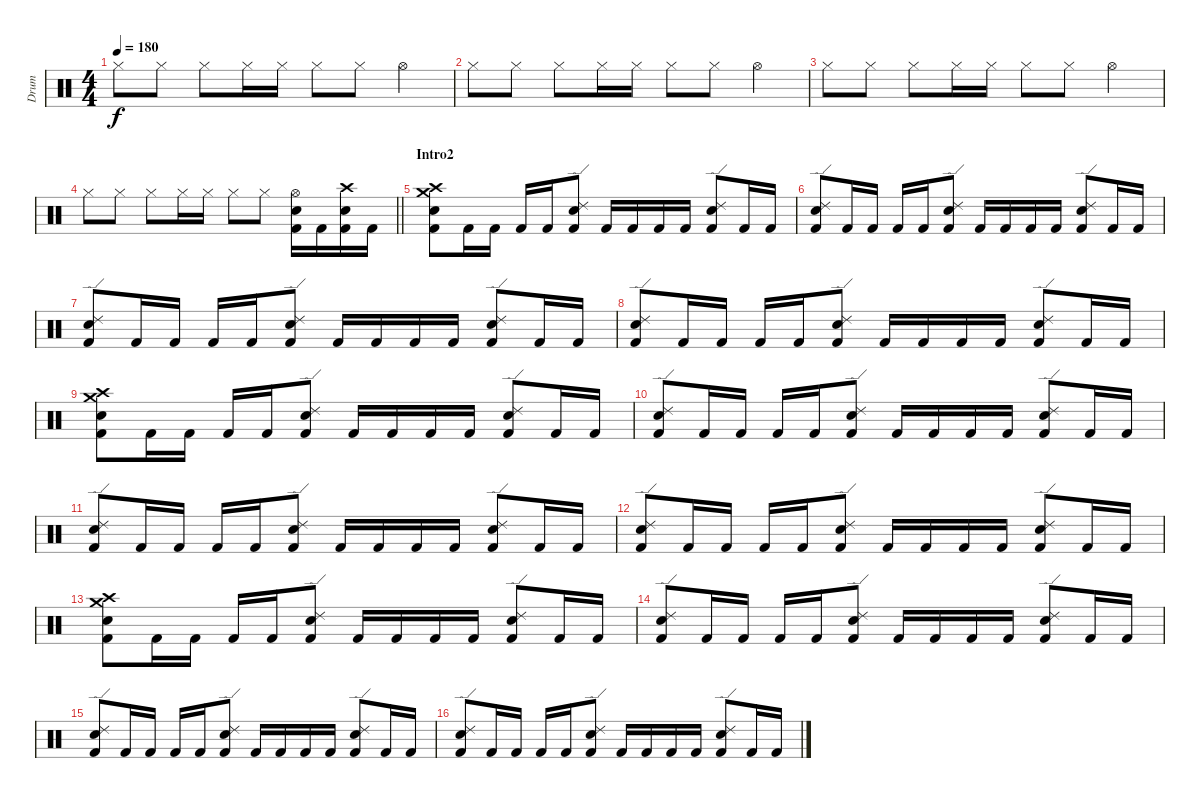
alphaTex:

\track ("Drum" "Drum") {instrument percussion}
\staff {score}
\articulation defaults
\ts (4 4)
\tempo 180
\clef neutral
\ks c "Hi-Hat (closed)".8{dy f} "Hi-Hat (closed)".8 "Hi-Hat (closed)".8 "Hi-Hat (closed)".16 "Hi-Hat (closed)".16 "Hi-Hat (closed)".8 "Hi-Hat (closed)".8 "Hi-Hat (open)".4
|
"Hi-Hat (closed)".8 "Hi-Hat (closed)".8 "Hi-Hat (closed)".8 "Hi-Hat (closed)".16 "Hi-Hat (closed)".16 "Hi-Hat (closed)".8 "Hi-Hat (closed)".8 "Hi-Hat (open)".4 |
"Hi-Hat (closed)".8 "Hi-Hat (closed)".8 "Hi-Hat (closed)".8 "Hi-Hat (closed)".16 "Hi-Hat (closed)".16 "Hi-Hat (closed)".8 "Hi-Hat (closed)".8 "Hi-Hat (open)".4 |
\barLineRight lightlight "Hi-Hat (closed)".8 "Hi-Hat (closed)".8 "Hi-Hat (closed)".8 "Hi-Hat (closed)".16 "Hi-Hat (closed)".16 "Hi-Hat (closed)".8 "Hi-Hat (closed)".8
("Hi-Hat (open)" "Electric Snare (hit)" "Kick (hit) 2").16 "Kick (hit) 2".16 ("Crash high (hit)" "Electric Snare (hit)" "Kick (hit) 2").16 "Kick (hit) 2".16 |
\section ("" "Intro2")
("Crash high (hit)" "Crash medium (hit)" "Electric Snare (hit)" "Kick (hit) 2").8 "Kick (hit) 2".16 "Kick (hit) 2".16 "Kick (hit) 2".16 "Kick (hit) 2".16 ("Ride (edge) 2" "Electric Snare (hit)" "Kick (hit) 2").8 "Kick (hit) 2".16 "Kick (hit) 2".16 "Kick (hit) 2".16 "Kick (hit) 2".16 ("Ride (edge) 2" "Electric Snare (hit)" "Kick (hit) 2").8 "Kick (hit) 2".16 "Kick (hit) 2".16 |
("Ride (edge) 2" "Electric Snare (hit)" "Kick (hit) 2").8 "Kick (hit) 2".16 "Kick (hit) 2".16 "Kick (hit) 2".16 "Kick (hit) 2".16 ("Ride (edge) 2" "Electric Snare (hit)" "Kick (hit) 2").8 "Kick (hit) 2".16 "Kick (hit) 2".16 "Kick (hit) 2".16 "Kick (hit) 2".16 ("Ride (edge) 2" "Electric Snare (hit)" "Kick (hit) 2").8 "Kick (hit) 2".16 "Kick (hit) 2".16 |
("Ride (edge) 2" "Electric Snare (hit)" "Kick (hit) 2").8 "Kick (hit) 2".16 "Kick (hit) 2".16 "Kick (hit) 2".16 "Kick (hit) 2".16 ("Ride (edge) 2" "Electric Snare (hit)" "Kick (hit) 2").8 "Kick (hit) 2".16 "Kick (hit) 2".16 "Kick (hit) 2".16 "Kick (hit) 2".16 ("Ride (edge) 2" "Electric Snare (hit)" "Kick (hit) 2").8 "Kick (hit) 2".16 "Kick (hit) 2".16 |
("Ride (edge) 2" "Electric Snare (hit)" "Kick (hit) 2").8 "Kick (hit) 2".16 "Kick (hit) 2".16 "Kick (hit) 2".16 "Kick (hit) 2".16 ("Ride (edge) 2" "Electric Snare (hit)" "Kick (hit) 2").8 "Kick (hit) 2".16 "Kick (hit) 2".16 "Kick (hit) 2".16 "Kick (hit) 2".16 ("Ride (edge) 2" "Electric Snare (hit)" "Kick (hit) 2").8 "Kick (hit) 2".16 "Kick (hit) 2".16 |
("Crash high (hit)" "Crash medium (hit)" "Electric Snare (hit)" "Kick (hit) 2").8 "Kick (hit) 2".16 "Kick (hit) 2".16 "Kick (hit) 2".16 "Kick (hit) 2".16 ("Ride (edge) 2" "Electric Snare (hit)" "Kick (hit) 2").8 "Kick (hit) 2".16 "Kick (hit) 2".16 "Kick (hit) 2".16 "Kick (hit) 2".16 ("Ride (edge) 2" "Electric Snare (hit)" "Kick (hit) 2").8 "Kick (hit) 2".16 "Kick (hit) 2".16 |
("Ride (edge) 2" "Electric Snare (hit)" "Kick (hit) 2").8 "Kick (hit) 2".16 "Kick (hit) 2".16 "Kick (hit) 2".16 "Kick (hit) 2".16 ("Ride (edge) 2" "Electric Snare (hit)" "Kick (hit) 2").8 "Kick (hit) 2".16 "Kick (hit) 2".16 "Kick (hit) 2".16 "Kick (hit) 2".16 ("Ride (edge) 2" "Electric Snare (hit)" "Kick (hit) 2").8 "Kick (hit) 2".16 "Kick (hit) 2".16 |
("Ride (edge) 2" "Electric Snare (hit)" "Kick (hit) 2").8 "Kick (hit) 2".16 "Kick (hit) 2".16 "Kick (hit) 2".16 "Kick (hit) 2".16 ("Ride (edge) 2" "Electric Snare (hit)" "Kick (hit) 2").8 "Kick (hit) 2".16 "Kick (hit) 2".16 "Kick (hit) 2".16 "Kick (hit) 2".16 ("Ride (edge) 2" "Electric Snare (hit)" "Kick (hit) 2").8 "Kick (hit) 2".16 "Kick (hit) 2".16 |
("Ride (edge) 2" "Electric Snare (hit)" "Kick (hit) 2").8 "Kick (hit) 2".16 "Kick (hit) 2".16 "Kick (hit) 2".16 "Kick (hit) 2".16 ("Ride (edge) 2" "Electric Snare (hit)" "Kick (hit) 2").8 "Kick (hit) 2".16 "Kick (hit) 2".16 "Kick (hit) 2".16 "Kick (hit) 2".16 ("Ride (edge) 2" "Electric Snare (hit)" "Kick (hit) 2").8 "Kick (hit) 2".16 "Kick (hit) 2".16 |
("Crash high (hit)" "Crash medium (hit)" "Electric Snare (hit)" "Kick (hit) 2").8 "Kick (hit) 2".16 "Kick (hit) 2".16 "Kick (hit) 2".16 "Kick (hit) 2".16 ("Ride (edge) 2" "Electric Snare (hit)" "Kick (hit) 2").8 "Kick (hit) 2".16 "Kick (hit) 2".16 "Kick (hit) 2".16 "Kick (hit) 2".16 ("Ride (edge) 2" "Electric Snare (hit)" "Kick (hit) 2").8 "Kick (hit) 2".16 "Kick (hit) 2".16 |
("Ride (edge) 2" "Electric Snare (hit)" "Kick (hit) 2").8 "Kick (hit) 2".16 "Kick (hit) 2".16 "Kick (hit) 2".16 "Kick (hit) 2".16 ("Ride (edge) 2" "Electric Snare (hit)" "Kick (hit) 2").8 "Kick (hit) 2".16 "Kick (hit) 2".16 "Kick (hit) 2".16 "Kick (hit) 2".16 ("Ride (edge) 2" "Electric Snare (hit)" "Kick (hit) 2").8 "Kick (hit) 2".16 "Kick (hit) 2".16 |
("Ride (edge) 2" "Electric Snare (hit)" "Kick (hit) 2").8 "Kick (hit) 2".16 "Kick (hit) 2".16 "Kick (hit) 2".16 "Kick (hit) 2".16 ("Ride (edge) 2" "Electric Snare (hit)" "Kick (hit) 2").8 "Kick (hit) 2".16 "Kick (hit) 2".16 "Kick (hit) 2".16 "Kick (hit) 2".16 ("Ride (edge) 2" "Electric Snare (hit)" "Kick (hit) 2").8 "Kick (hit) 2".16 "Kick (hit) 2".16 |
("Ride (edge) 2" "Electric Snare (hit)" "Kick (hit) 2").8 "Kick (hit) 2".16 "Kick (hit) 2".16 "Kick (hit) 2".16 "Kick (hit) 2".16 ("Ride (edge) 2" "Electric Snare (hit)" "Kick (hit) 2").8 "Kick (hit) 2".16 "Kick (hit) 2".16 "Kick (hit) 2".16 "Kick (hit) 2".16 ("Ride (edge) 2" "Electric Snare (hit)" "Kick (hit) 2").8 "Kick (hit) 2".16 "Kick (hit) 2".16
